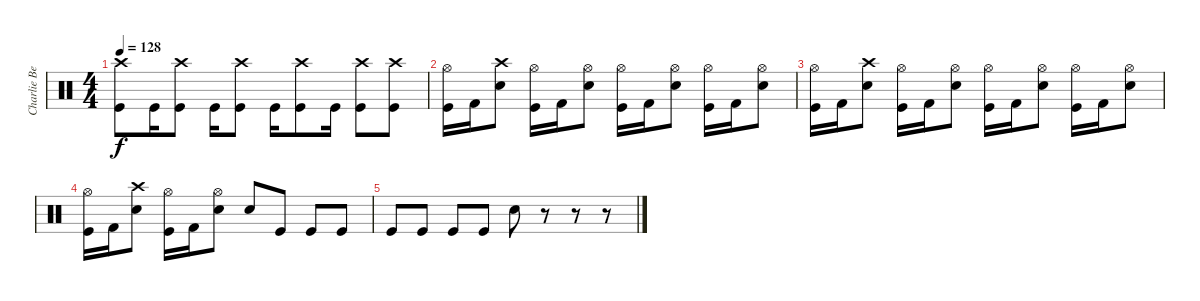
\track ("Charlie Benante (Drums)" "Charlie Be") {instrument percussion}
\staff {score}
\articulation defaults
\ts (4 4)
\tempo 128
\clef neutral
\ks c
("Crash high (hit)" "Kick (hit)").8{dy f} "Kick (hit)".16 ("Crash high (hit)" "Kick (hit)").8 "Kick (hit)".16 ("Crash high (hit)" "Kick (hit)").8 "Kick (hit)".16 ("Crash high (hit)" "Kick (hit)").8 "Kick (hit)".16 ("Crash high (hit)" "Kick (hit)").8 ("Crash high (hit)" "Kick (hit)").8 |
("Hi-Hat (open)" "Kick (hit)").16 "Kick (hit) 2".16 ("Crash high (hit)" "Snare (hit) 2").8 ("Hi-Hat (open)" "Kick (hit)").16 "Kick (hit) 2".16 ("Hi-Hat (open)" "Snare (hit) 2").8 ("Hi-Hat (open)" "Kick (hit)").16 "Kick (hit) 2".16 ("Hi-Hat (open)" "Snare (hit) 2").8 ("Hi-Hat (open)" "Kick (hit)").16 "Kick (hit) 2".16 ("Hi-Hat (open)" "Snare (hit) 2").8 |
("Hi-Hat (open)" "Kick (hit)").16 "Kick (hit) 2".16 ("Crash high (hit)" "Snare (hit) 2").8 ("Hi-Hat (open)" "Kick (hit)").16 "Kick (hit) 2".16 ("Hi-Hat (open)" "Snare (hit) 2").8 ("Hi-Hat (open)" "Kick (hit)").16 "Kick (hit) 2".16 ("Hi-Hat (open)" "Snare (hit) 2").8 ("Hi-Hat (open)" "Kick (hit)").16 "Kick (hit) 2".16 ("Hi-Hat (open)" "Snare (hit) 2").8 |
("Hi-Hat (open)" "Kick (hit)").16 "Kick (hit) 2".16 ("Crash high (hit)" "Snare (hit) 2").8 ("Hi-Hat (open)" "Kick (hit)").16 "Kick (hit) 2".16 ("Hi-Hat (open)" "Snare (hit) 2").8 "Snare (hit) 2".8 "Kick (hit)".8 "Kick (hit)".8 "Kick (hit)".8 |
"Kick (hit)".8 "Kick (hit)".8 "Kick (hit)".8 "Kick (hit)".8 "Snare (hit) 2".8 r.8 r.8 r.8
